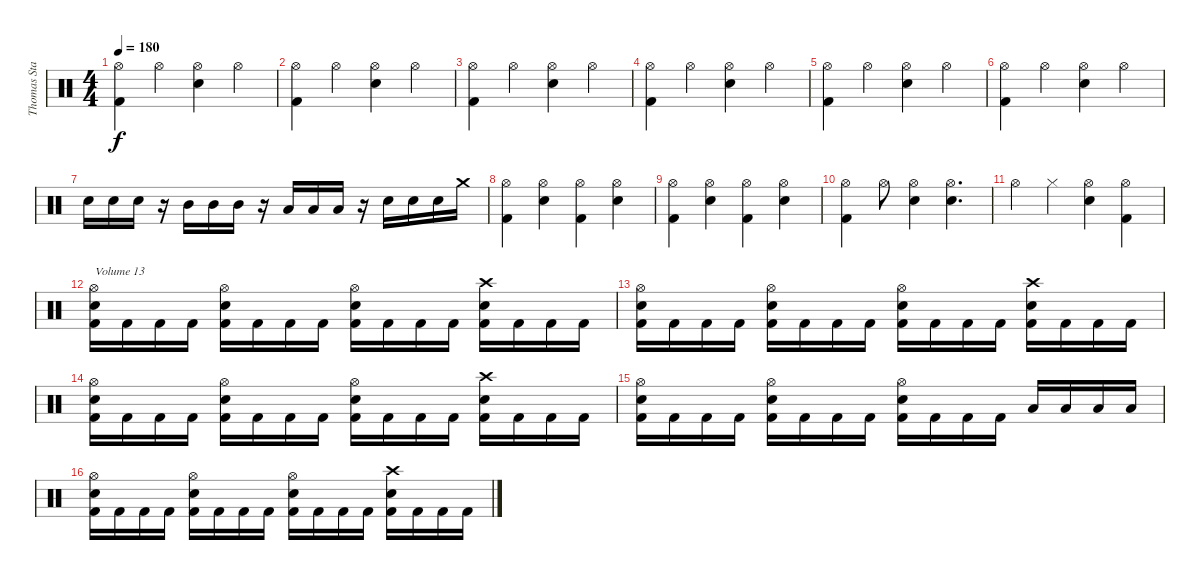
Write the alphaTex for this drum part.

\track ("Thomas Stauch" "Thomas Sta") {instrument percussion}
\staff {score}
\articulation defaults
\ts (4 4)
\tempo 180
\clef neutral
\ks c
("Hi-Hat (open)" "Kick (hit) 2").4{dy f} "Hi-Hat (open)".4 ("Hi-Hat (open)" "Electric Snare (hit)").4 "Hi-Hat (open)".4 |
("Hi-Hat (open)" "Kick (hit) 2").4 "Hi-Hat (open)".4 ("Hi-Hat (open)" "Electric Snare (hit)").4 "Hi-Hat (open)".4 |
("Hi-Hat (open)" "Kick (hit) 2").4 "Hi-Hat (open)".4 ("Hi-Hat (open)" "Electric Snare (hit)").4 "Hi-Hat (open)".4 |
("Hi-Hat (open)" "Kick (hit) 2").4 "Hi-Hat (open)".4 ("Hi-Hat (open)" "Electric Snare (hit)").4 "Hi-Hat (open)".4 |
("Hi-Hat (open)" "Kick (hit) 2").4 "Hi-Hat (open)".4 ("Hi-Hat (open)" "Electric Snare (hit)").4 "Hi-Hat (open)".4 |
("Hi-Hat (open)" "Kick (hit) 2").4 "Hi-Hat (open)".4 ("Hi-Hat (open)" "Electric Snare (hit)").4 "Hi-Hat (open)".4 |
"Electric Snare (hit)".16 "Electric Snare (hit)".16 "Electric Snare (hit)".16 r.16 "Mid Tom (hit)".16 "Mid Tom (hit)".16 "Mid Tom (hit)".16 r.16 "Low Tom (hit)".16 "Low Tom (hit)".16 "Low Tom (hit)".16 r.16 "Electric Snare (hit)".16 "Electric Snare (hit)".16 "Electric Snare (hit)".16 "Crash medium (hit)".16 |
("Hi-Hat (open)" "Kick (hit) 2").4 ("Hi-Hat (open)" "Electric Snare (hit)").4 ("Hi-Hat (open)" "Kick (hit) 2").4 ("Hi-Hat (open)" "Electric Snare (hit)").4 |
("Hi-Hat (open)" "Kick (hit) 2").4 ("Hi-Hat (open)" "Electric Snare (hit)").4 ("Hi-Hat (open)" "Kick (hit) 2").4 ("Hi-Hat (open)" "Electric Snare (hit)").4 |
("Hi-Hat (open)" "Kick (hit) 2").4 "Hi-Hat (open)".8 ("Hi-Hat (open)" "Electric Snare (hit)").4 ("Hi-Hat (open)" "Electric Snare (hit)").4{d} |
"Hi-Hat (open)".4 "Hi-Hat (closed)".4 ("Hi-Hat (open)" "Electric Snare (hit)").4 ("Hi-Hat (open)" "Kick (hit) 2").4 |
("Hi-Hat (open)" "Electric Snare (hit)" "Kick (hit) 2").16{txt "Volume 13" volume 13} "Kick (hit) 2".16 "Kick (hit) 2".16 "Kick (hit) 2".16 ("Hi-Hat (open)" "Electric Snare (hit)" "Kick (hit) 2").16 "Kick (hit) 2".16 "Kick (hit) 2".16 "Kick (hit) 2".16 ("Hi-Hat (open)" "Electric Snare (hit)" "Kick (hit) 2").16 "Kick (hit) 2".16 "Kick (hit) 2".16 "Kick (hit) 2".16 ("Crash high (hit)" "Electric Snare (hit)" "Kick (hit) 2").16 "Kick (hit) 2".16 "Kick (hit) 2".16 "Kick (hit) 2".16 |
("Hi-Hat (open)" "Electric Snare (hit)" "Kick (hit) 2").16 "Kick (hit) 2".16 "Kick (hit) 2".16 "Kick (hit) 2".16 ("Hi-Hat (open)" "Electric Snare (hit)" "Kick (hit) 2").16 "Kick (hit) 2".16 "Kick (hit) 2".16 "Kick (hit) 2".16 ("Hi-Hat (open)" "Electric Snare (hit)" "Kick (hit) 2").16 "Kick (hit) 2".16 "Kick (hit) 2".16 "Kick (hit) 2".16 ("Crash high (hit)" "Electric Snare (hit)" "Kick (hit) 2").16 "Kick (hit) 2".16 "Kick (hit) 2".16 "Kick (hit) 2".16 |
("Hi-Hat (open)" "Electric Snare (hit)" "Kick (hit) 2").16 "Kick (hit) 2".16 "Kick (hit) 2".16 "Kick (hit) 2".16 ("Hi-Hat (open)" "Electric Snare (hit)" "Kick (hit) 2").16 "Kick (hit) 2".16 "Kick (hit) 2".16 "Kick (hit) 2".16 ("Hi-Hat (open)" "Electric Snare (hit)" "Kick (hit) 2").16 "Kick (hit) 2".16 "Kick (hit) 2".16 "Kick (hit) 2".16 ("Crash high (hit)" "Electric Snare (hit)" "Kick (hit) 2").16 "Kick (hit) 2".16 "Kick (hit) 2".16 "Kick (hit) 2".16 |
("Hi-Hat (open)" "Electric Snare (hit)" "Kick (hit) 2").16 "Kick (hit) 2".16 "Kick (hit) 2".16 "Kick (hit) 2".16 ("Hi-Hat (open)" "Electric Snare (hit)" "Kick (hit) 2").16 "Kick (hit) 2".16 "Kick (hit) 2".16 "Kick (hit) 2".16 ("Hi-Hat (open)" "Electric Snare (hit)" "Kick (hit) 2").16 "Kick (hit) 2".16 "Kick (hit) 2".16 "Kick (hit) 2".16 "Low Tom (hit)".16 "Low Tom (hit)".16 "Low Tom (hit)".16 "Low Tom (hit)".16 |
("Hi-Hat (open)" "Electric Snare (hit)" "Kick (hit) 2").16 "Kick (hit) 2".16 "Kick (hit) 2".16 "Kick (hit) 2".16 ("Hi-Hat (open)" "Electric Snare (hit)" "Kick (hit) 2").16 "Kick (hit) 2".16 "Kick (hit) 2".16 "Kick (hit) 2".16 ("Hi-Hat (open)" "Electric Snare (hit)" "Kick (hit) 2").16 "Kick (hit) 2".16 "Kick (hit) 2".16 "Kick (hit) 2".16 ("Crash high (hit)" "Electric Snare (hit)" "Kick (hit) 2").16 "Kick (hit) 2".16 "Kick (hit) 2".16 "Kick (hit) 2".16
